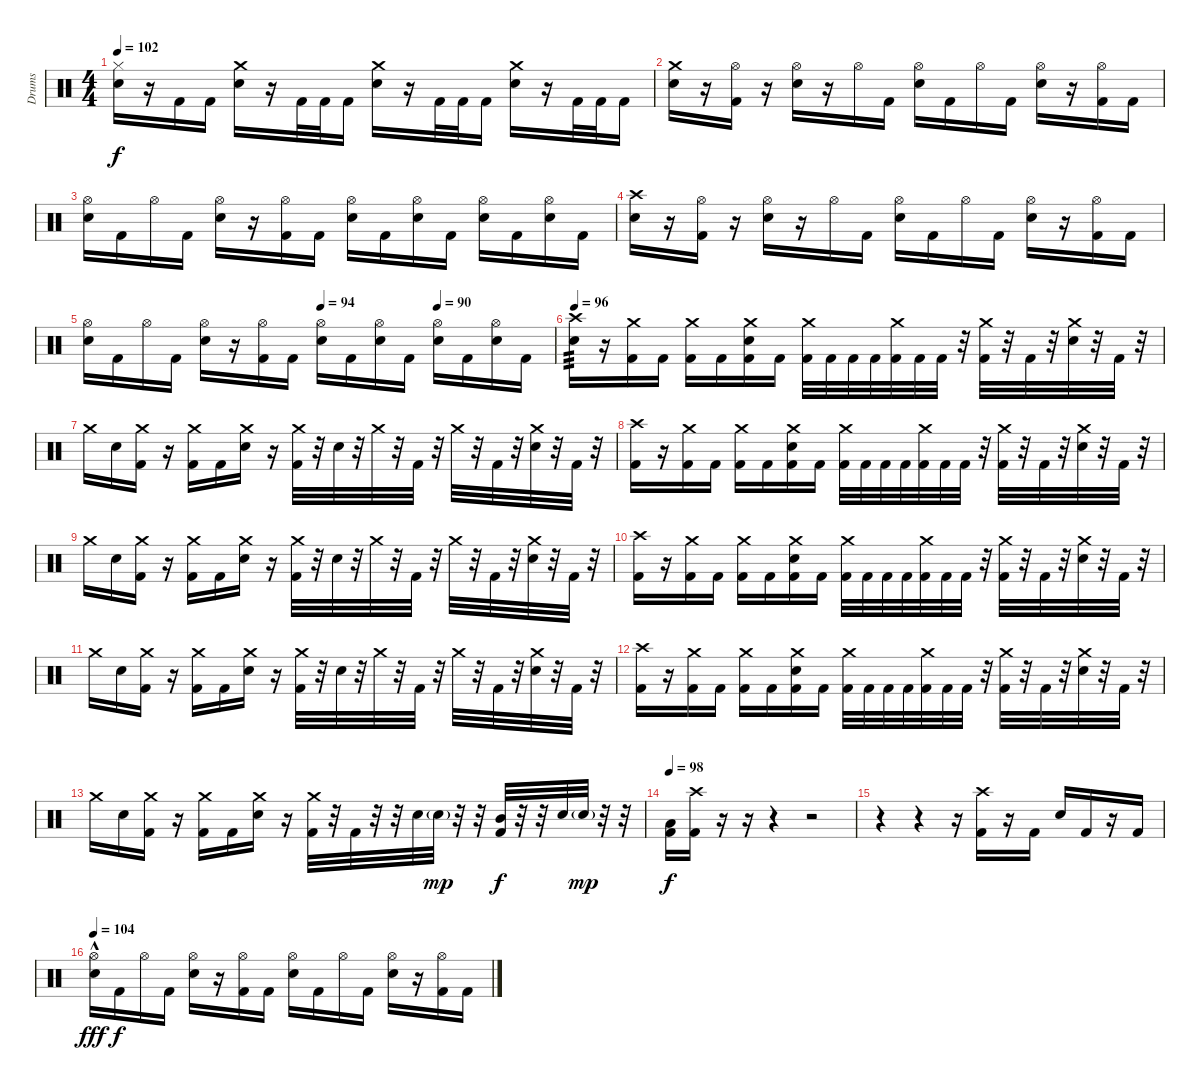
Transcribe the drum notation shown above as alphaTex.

\track ("Drums" "Drums") {instrument percussion}
\staff {score}
\articulation defaults
\ts (4 4)
\tempo 102
\clef neutral
\ks c
("Hi-Hat (closed)" "Electric Snare (hit)").16{dy f} r.16 "Kick (hit) 2".16 "Kick (hit) 2".16 ("Crash medium (hit)" "Electric Snare (hit)").16 r.16 "Kick (hit) 2".32 "Kick (hit) 2".32 "Kick (hit) 2".16 ("Crash medium (hit)" "Electric Snare (hit)").16 r.16 "Kick (hit) 2".32 "Kick (hit) 2".32 "Kick (hit) 2".16 ("Crash medium (hit)" "Electric Snare (hit)").16 r.16 "Kick (hit) 2".32 "Kick (hit) 2".32 "Kick (hit) 2".16 |
("Crash medium (hit)" "Electric Snare (hit)").16 r.16 ("Hi-Hat (open)" "Kick (hit) 2").16 r.16 ("Hi-Hat (open)" "Electric Snare (hit)").16 r.16 "Hi-Hat (open)".16 "Kick (hit) 2".16 ("Hi-Hat (open)" "Electric Snare (hit)").16 "Kick (hit) 2".16 "Hi-Hat (open)".16 "Kick (hit) 2".16 ("Hi-Hat (open)" "Electric Snare (hit)").16 r.16 ("Hi-Hat (open)" "Kick (hit) 2").16 "Kick (hit) 2".16 |
("Hi-Hat (open)" "Electric Snare (hit)").16 "Kick (hit) 2".16 "Hi-Hat (open)".16 "Kick (hit) 2".16 ("Hi-Hat (open)" "Electric Snare (hit)").16 r.16 ("Hi-Hat (open)" "Kick (hit) 2").16 "Kick (hit) 2".16 ("Hi-Hat (open)" "Electric Snare (hit)").16 "Kick (hit) 2".16 ("Hi-Hat (open)" "Electric Snare (hit)").16 "Kick (hit) 2".16 ("Hi-Hat (open)" "Electric Snare (hit)").16 "Kick (hit) 2".16 ("Hi-Hat (open)" "Electric Snare (hit)").16 "Kick (hit) 2".16 |
("Crash high (hit)" "Electric Snare (hit)").16 r.16 ("Hi-Hat (open)" "Kick (hit) 2").16 r.16 ("Hi-Hat (open)" "Electric Snare (hit)").16 r.16 "Hi-Hat (open)".16 "Kick (hit) 2".16 ("Hi-Hat (open)" "Electric Snare (hit)").16 "Kick (hit) 2".16 "Hi-Hat (open)".16 "Kick (hit) 2".16 ("Hi-Hat (open)" "Electric Snare (hit)").16 r.16 ("Hi-Hat (open)" "Kick (hit) 2").16 "Kick (hit) 2".16 |
\tempo (94 0.5)
\tempo (90 0.75)
("Hi-Hat (open)" "Electric Snare (hit)").16 "Kick (hit) 2".16 "Hi-Hat (open)".16 "Kick (hit) 2".16 ("Hi-Hat (open)" "Electric Snare (hit)").16 r.16 ("Hi-Hat (open)" "Kick (hit) 2").16 "Kick (hit) 2".16 ("Hi-Hat (open)" "Electric Snare (hit)").16 "Kick (hit) 2".16 ("Hi-Hat (open)" "Electric Snare (hit)").16 "Kick (hit) 2".16 ("Hi-Hat (open)" "Electric Snare (hit)").16 "Kick (hit) 2".16 ("Hi-Hat (open)" "Electric Snare (hit)").16 "Kick (hit) 2".16 |
\tempo 96
("Crash high (hit)" "Electric Snare (hit)").16{tp 3} r.16 ("Crash medium (hit)" "Kick (hit) 2").16 "Kick (hit) 2".16 ("Crash medium (hit)" "Kick (hit) 2").16 "Kick (hit) 2".16 ("Crash medium (hit)" "Electric Snare (hit)" "Kick (hit) 2").16 "Kick (hit) 2".16 ("Crash medium (hit)" "Kick (hit) 2").32 "Kick (hit) 2".32 "Kick (hit) 2".32 "Kick (hit) 2".32 ("Crash medium (hit)" "Kick (hit) 2").32 "Kick (hit) 2".32 "Kick (hit) 2".32 r.32 ("Crash medium (hit)" "Kick (hit) 2").32 r.32 "Kick (hit) 2".32 r.32 ("Crash medium (hit)" "Electric Snare (hit)").32 r.32 "Kick (hit) 2".32 r.32 |
"Crash medium (hit)".16 "Electric Snare (hit)".16 ("Crash medium (hit)" "Kick (hit) 2").16 r.16 ("Crash medium (hit)" "Kick (hit) 2").16 "Kick (hit) 2".16 ("Crash medium (hit)" "Electric Snare (hit)").16 r.16 ("Crash medium (hit)" "Kick (hit) 2").32 r.32 "Electric Snare (hit)".32 r.32 "Crash medium (hit)".32 r.32 "Kick (hit) 2".32 r.32 "Crash medium (hit)".32 r.32 "Kick (hit) 2".32 r.32 ("Crash medium (hit)" "Electric Snare (hit)").32 r.32 "Kick (hit) 2".32 r.32 |
("Crash high (hit)" "Kick (hit) 2").16 r.16 ("Crash medium (hit)" "Kick (hit) 2").16 "Kick (hit) 2".16 ("Crash medium (hit)" "Kick (hit) 2").16 "Kick (hit) 2".16 ("Crash medium (hit)" "Electric Snare (hit)" "Kick (hit) 2").16 "Kick (hit) 2".16 ("Crash medium (hit)" "Kick (hit) 2").32 "Kick (hit) 2".32 "Kick (hit) 2".32 "Kick (hit) 2".32 ("Crash medium (hit)" "Kick (hit) 2").32 "Kick (hit) 2".32 "Kick (hit) 2".32 r.32 ("Crash medium (hit)" "Kick (hit) 2").32 r.32 "Kick (hit) 2".32 r.32 ("Crash medium (hit)" "Electric Snare (hit)").32 r.32 "Kick (hit) 2".32 r.32 |
"Crash medium (hit)".16 "Electric Snare (hit)".16 ("Crash medium (hit)" "Kick (hit) 2").16 r.16 ("Crash medium (hit)" "Kick (hit) 2").16 "Kick (hit) 2".16 ("Crash medium (hit)" "Electric Snare (hit)").16 r.16 ("Crash medium (hit)" "Kick (hit) 2").32 r.32 "Electric Snare (hit)".32 r.32 "Crash medium (hit)".32 r.32 "Kick (hit) 2".32 r.32 "Crash medium (hit)".32 r.32 "Kick (hit) 2".32 r.32 ("Crash medium (hit)" "Electric Snare (hit)").32 r.32 "Kick (hit) 2".32 r.32 |
("Crash high (hit)" "Kick (hit) 2").16 r.16 ("Crash medium (hit)" "Kick (hit) 2").16 "Kick (hit) 2".16 ("Crash medium (hit)" "Kick (hit) 2").16 "Kick (hit) 2".16 ("Crash medium (hit)" "Electric Snare (hit)" "Kick (hit) 2").16 "Kick (hit) 2".16 ("Crash medium (hit)" "Kick (hit) 2").32 "Kick (hit) 2".32 "Kick (hit) 2".32 "Kick (hit) 2".32 ("Crash medium (hit)" "Kick (hit) 2").32 "Kick (hit) 2".32 "Kick (hit) 2".32 r.32 ("Crash medium (hit)" "Kick (hit) 2").32 r.32 "Kick (hit) 2".32 r.32 ("Crash medium (hit)" "Electric Snare (hit)").32 r.32 "Kick (hit) 2".32 r.32 |
"Crash medium (hit)".16 "Electric Snare (hit)".16 ("Crash medium (hit)" "Kick (hit) 2").16 r.16 ("Crash medium (hit)" "Kick (hit) 2").16 "Kick (hit) 2".16 ("Crash medium (hit)" "Electric Snare (hit)").16 r.16 ("Crash medium (hit)" "Kick (hit) 2").32 r.32 "Electric Snare (hit)".32 r.32 "Crash medium (hit)".32 r.32 "Kick (hit) 2".32 r.32 "Crash medium (hit)".32 r.32 "Kick (hit) 2".32 r.32 ("Crash medium (hit)" "Electric Snare (hit)").32 r.32 "Kick (hit) 2".32 r.32 |
("Crash high (hit)" "Kick (hit) 2").16 r.16 ("Crash medium (hit)" "Kick (hit) 2").16 "Kick (hit) 2".16 ("Crash medium (hit)" "Kick (hit) 2").16 "Kick (hit) 2".16 ("Crash medium (hit)" "Electric Snare (hit)" "Kick (hit) 2").16 "Kick (hit) 2".16 ("Crash medium (hit)" "Kick (hit) 2").32 "Kick (hit) 2".32 "Kick (hit) 2".32 "Kick (hit) 2".32 ("Crash medium (hit)" "Kick (hit) 2").32 "Kick (hit) 2".32 "Kick (hit) 2".32 r.32 ("Crash medium (hit)" "Kick (hit) 2").32 r.32 "Kick (hit) 2".32 r.32 ("Crash medium (hit)" "Electric Snare (hit)").32 r.32 "Kick (hit) 2".32 r.32 |
"Crash medium (hit)".16 "Electric Snare (hit)".16 ("Crash medium (hit)" "Kick (hit) 2").16 r.16 ("Crash medium (hit)" "Kick (hit) 2").16 "Kick (hit) 2".16 ("Crash medium (hit)" "Electric Snare (hit)").16 r.16 ("Crash medium (hit)" "Kick (hit) 2").32 r.32 "Kick (hit) 2".32 r.32 r.32 "Electric Snare (hit)".32 "Electric Snare (hit)"{g}.32{dy mp} r.32 r.32 ("Mid Tom (hit)" "Kick (hit) 2").32{dy f} r.32 r.32 "Electric Snare (hit)".32 "Electric Snare (hit)"{g}.32{dy mp} r.32 r.32 |
\tempo 98
("Low Tom (hit)" "Kick (hit) 2").16{dy f} ("Crash high (hit)" "Kick (hit) 2").16 r.16 r.16 r.4 r.2 |
r.4 r.4 r.16 ("Crash high (hit)" "Kick (hit) 2").16 r.16 "Kick (hit) 2".16 "Electric Snare (hit)".16 "Kick (hit) 2".16 r.16 "Kick (hit) 2".16 |
\tempo 104
("Hi-Hat (open)" "Electric Snare (hit)"{hac}).16{dy fff} "Kick (hit) 2".16{dy f} "Hi-Hat (open)".16 "Kick (hit) 2".16 ("Hi-Hat (open)" "Electric Snare (hit)").16 r.16 ("Hi-Hat (open)" "Kick (hit) 2").16 "Kick (hit) 2".16 ("Hi-Hat (open)" "Electric Snare (hit)").16 "Kick (hit) 2".16 "Hi-Hat (open)".16 "Kick (hit) 2".16 ("Hi-Hat (open)" "Electric Snare (hit)").16 r.16 ("Hi-Hat (open)" "Kick (hit) 2").16 "Kick (hit) 2".16
